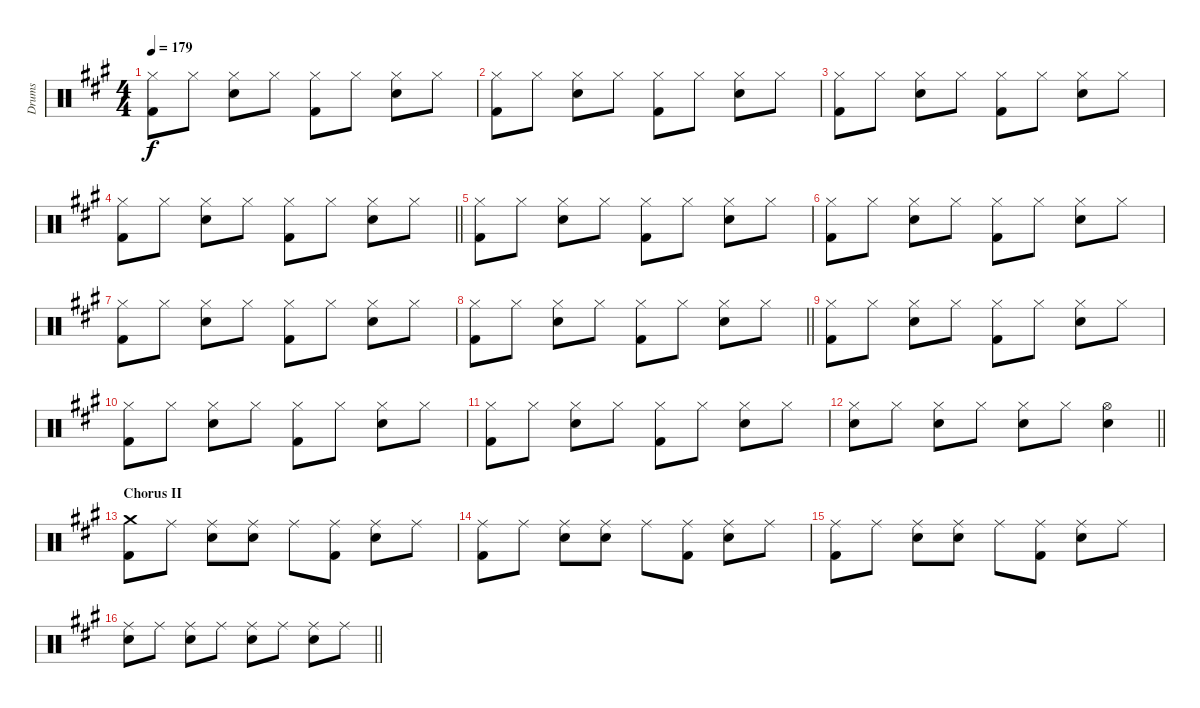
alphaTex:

\track ("Drums" "Drums") {instrument percussion}
\staff {score}
\articulation defaults
\ts (4 4)
\tempo 179
\clef neutral
\ks a
("Hi-Hat (closed)" "Kick (hit) 2").8{dy f} "Hi-Hat (closed)".8 ("Hi-Hat (closed)" "Electric Snare (hit)").8 "Hi-Hat (closed)".8 ("Hi-Hat (closed)" "Kick (hit) 2").8 "Hi-Hat (closed)".8 ("Hi-Hat (closed)" "Electric Snare (hit)").8 "Hi-Hat (closed)".8 |
("Hi-Hat (closed)" "Kick (hit) 2").8 "Hi-Hat (closed)".8 ("Hi-Hat (closed)" "Electric Snare (hit)").8 "Hi-Hat (closed)".8 ("Hi-Hat (closed)" "Kick (hit) 2").8 "Hi-Hat (closed)".8 ("Hi-Hat (closed)" "Electric Snare (hit)").8 "Hi-Hat (closed)".8 |
("Hi-Hat (closed)" "Kick (hit) 2").8 "Hi-Hat (closed)".8 ("Hi-Hat (closed)" "Electric Snare (hit)").8 "Hi-Hat (closed)".8 ("Hi-Hat (closed)" "Kick (hit) 2").8 "Hi-Hat (closed)".8 ("Hi-Hat (closed)" "Electric Snare (hit)").8 "Hi-Hat (closed)".8 |
\barLineRight lightlight
("Hi-Hat (closed)" "Kick (hit) 2").8 "Hi-Hat (closed)".8 ("Hi-Hat (closed)" "Electric Snare (hit)").8 "Hi-Hat (closed)".8 ("Hi-Hat (closed)" "Kick (hit) 2").8 "Hi-Hat (closed)".8 ("Hi-Hat (closed)" "Electric Snare (hit)").8 "Hi-Hat (closed)".8 |
("Hi-Hat (closed)" "Kick (hit) 2").8 "Hi-Hat (closed)".8 ("Hi-Hat (closed)" "Electric Snare (hit)").8 "Hi-Hat (closed)".8 ("Hi-Hat (closed)" "Kick (hit) 2").8 "Hi-Hat (closed)".8 ("Hi-Hat (closed)" "Electric Snare (hit)").8 "Hi-Hat (closed)".8 |
("Hi-Hat (closed)" "Kick (hit) 2").8 "Hi-Hat (closed)".8 ("Hi-Hat (closed)" "Electric Snare (hit)").8 "Hi-Hat (closed)".8 ("Hi-Hat (closed)" "Kick (hit) 2").8 "Hi-Hat (closed)".8 ("Hi-Hat (closed)" "Electric Snare (hit)").8 "Hi-Hat (closed)".8 |
("Hi-Hat (closed)" "Kick (hit) 2").8 "Hi-Hat (closed)".8 ("Hi-Hat (closed)" "Electric Snare (hit)").8 "Hi-Hat (closed)".8 ("Hi-Hat (closed)" "Kick (hit) 2").8 "Hi-Hat (closed)".8 ("Hi-Hat (closed)" "Electric Snare (hit)").8 "Hi-Hat (closed)".8 |
\barLineRight lightlight
("Hi-Hat (closed)" "Kick (hit) 2").8 "Hi-Hat (closed)".8 ("Hi-Hat (closed)" "Electric Snare (hit)").8 "Hi-Hat (closed)".8 ("Hi-Hat (closed)" "Kick (hit) 2").8 "Hi-Hat (closed)".8 ("Hi-Hat (closed)" "Electric Snare (hit)").8 "Hi-Hat (closed)".8 |
("Hi-Hat (closed)" "Kick (hit) 2").8 "Hi-Hat (closed)".8 ("Hi-Hat (closed)" "Electric Snare (hit)").8 "Hi-Hat (closed)".8 ("Hi-Hat (closed)" "Kick (hit) 2").8 "Hi-Hat (closed)".8 ("Hi-Hat (closed)" "Electric Snare (hit)").8 "Hi-Hat (closed)".8 |
("Hi-Hat (closed)" "Kick (hit) 2").8 "Hi-Hat (closed)".8 ("Hi-Hat (closed)" "Electric Snare (hit)").8 "Hi-Hat (closed)".8 ("Hi-Hat (closed)" "Kick (hit) 2").8 "Hi-Hat (closed)".8 ("Hi-Hat (closed)" "Electric Snare (hit)").8 "Hi-Hat (closed)".8 |
("Hi-Hat (closed)" "Kick (hit) 2").8 "Hi-Hat (closed)".8 ("Hi-Hat (closed)" "Electric Snare (hit)").8 "Hi-Hat (closed)".8 ("Hi-Hat (closed)" "Kick (hit) 2").8 "Hi-Hat (closed)".8 ("Hi-Hat (closed)" "Electric Snare (hit)").8 "Hi-Hat (closed)".8 |
\barLineRight lightlight
("Hi-Hat (closed)" "Electric Snare (hit)").8 "Hi-Hat (closed)".8 ("Hi-Hat (closed)" "Electric Snare (hit)").8 "Hi-Hat (closed)".8 ("Hi-Hat (closed)" "Electric Snare (hit)").8 "Hi-Hat (closed)".8 ("Hi-Hat (open)" "Electric Snare (hit)").4 |
\section ("" "Chorus II")
("Crash medium (hit)" "Kick (hit) 2").8 "Ride (middle)".8 ("Ride (middle)" "Electric Snare (hit)").8 ("Ride (middle)" "Electric Snare (hit)").8 "Ride (middle)".8 ("Ride (middle)" "Kick (hit) 2").8 ("Ride (middle)" "Electric Snare (hit)").8 "Ride (middle)".8 |
("Ride (middle)" "Kick (hit) 2").8 "Ride (middle)".8 ("Ride (middle)" "Electric Snare (hit)").8 ("Ride (middle)" "Electric Snare (hit)").8 "Ride (middle)".8 ("Ride (middle)" "Kick (hit) 2").8 ("Ride (middle)" "Electric Snare (hit)").8 "Ride (middle)".8 |
("Ride (middle)" "Kick (hit) 2").8 "Ride (middle)".8 ("Ride (middle)" "Electric Snare (hit)").8 ("Ride (middle)" "Electric Snare (hit)").8 "Ride (middle)".8 ("Ride (middle)" "Kick (hit) 2").8 ("Ride (middle)" "Electric Snare (hit)").8 "Ride (middle)".8 |
\barLineRight lightlight
("Ride (middle)" "Electric Snare (hit)").8 "Ride (middle)".8 ("Ride (middle)" "Electric Snare (hit)").8 "Ride (middle)".8 ("Ride (middle)" "Electric Snare (hit)").8 "Ride (middle)".8 ("Ride (middle)" "Electric Snare (hit)").8 "Ride (middle)".8
